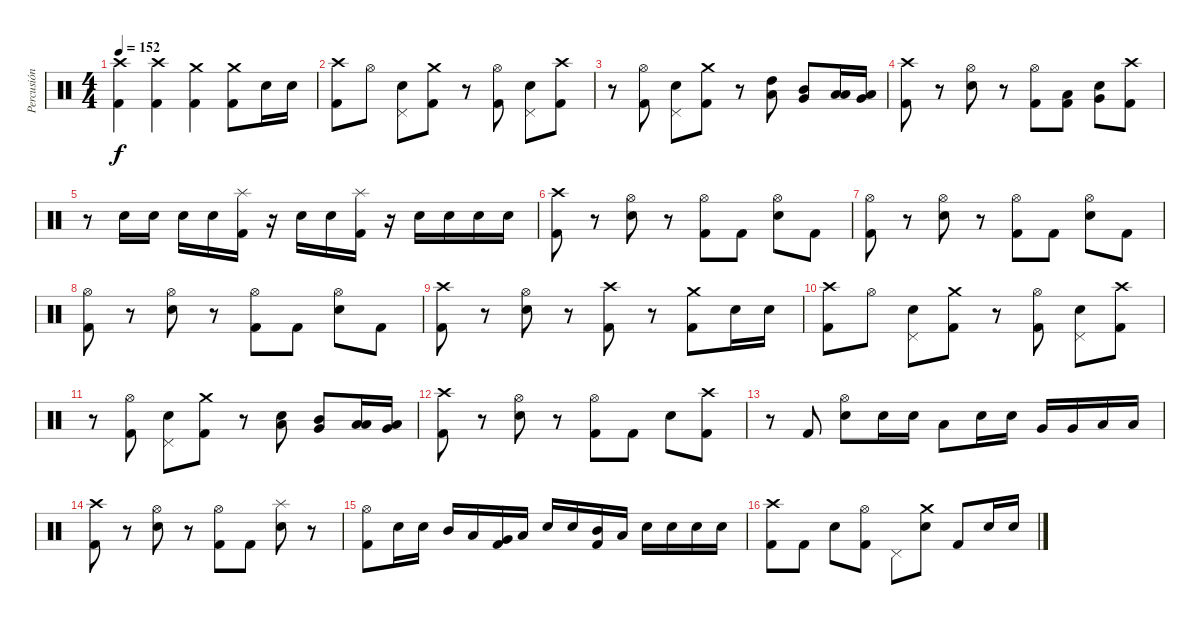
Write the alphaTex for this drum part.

\track ("Percusión" "Percusión") {instrument percussion}
\staff {score}
\articulation defaults
\ts (4 4)
\tempo 152
\clef neutral
\ks c
("Kick (hit) 2" "Crash high (hit)").4{dy f volume 14} ("Kick (hit) 2" "Crash high (hit)").4 ("Kick (hit) 2" "Crash medium (hit)").4 ("Kick (hit) 2" "Crash medium (hit)").8 "Snare (hit) 2".16 "Snare (hit) 2".16 |
("Kick (hit) 2" "Crash high (hit)").8 "Hi-Hat (open)".8 ("Snare (hit) 2" "Pedal Hi-Hat (hit)").8 ("Kick (hit) 2" "Crash medium (hit)").8 r.8 ("Kick (hit) 2" "Hi-Hat (open)").8 ("Snare (hit) 2" "Pedal Hi-Hat (hit)").8 ("Kick (hit) 2" "Crash high (hit)").8 |
r.8 ("Kick (hit) 2" "Hi-Hat (open)").8 ("Snare (hit) 2" "Pedal Hi-Hat (hit)").8 ("Kick (hit) 2" "Crash medium (hit)").8 r.8 ("High Tom (hit)" "Low Tom (hit)").8 ("Mid Tom (hit)" "Very Low Tom (hit)").8 ("Low Tom (hit)" "Low Floor Tom (hit)").16 ("Very Low Tom (hit)" "Low Floor Tom (hit)").16 |
("Kick (hit) 2" "Crash high (hit)").8 r.8 ("Snare (hit) 2" "Hi-Hat (open)").8 r.8 ("Kick (hit) 2" "Hi-Hat (open)").8 ("Kick (hit) 2" "Low Tom (hit)").8 ("Snare (hit) 2" "Very Low Tom (hit)").8 ("Kick (hit) 2" "Crash high (hit)").8 |
r.8 "Snare (hit) 2".16 "Snare (hit) 2".16 "Snare (hit) 2".16 "Snare (hit) 2".16 ("Kick (hit) 2" "Splash (hit)").16 r.16 "Snare (hit) 2".16 "Snare (hit) 2".16 ("Kick (hit) 2" "Splash (hit)").16 r.16 "Snare (hit) 2".16 "Snare (hit) 2".16 "Snare (hit) 2".16 "Snare (hit) 2".16 |
("Kick (hit) 2" "Crash high (hit)").8 r.8 ("Snare (hit) 2" "Hi-Hat (open)").8 r.8 ("Kick (hit) 2" "Hi-Hat (open)").8 "Kick (hit) 2".8 ("Snare (hit) 2" "Hi-Hat (open)").8 "Kick (hit) 2".8 |
("Kick (hit) 2" "Hi-Hat (open)").8 r.8 ("Snare (hit) 2" "Hi-Hat (open)").8 r.8 ("Kick (hit) 2" "Hi-Hat (open)").8 "Kick (hit) 2".8 ("Snare (hit) 2" "Hi-Hat (open)").8 "Kick (hit) 2".8 |
("Kick (hit) 2" "Hi-Hat (open)").8 r.8 ("Snare (hit) 2" "Hi-Hat (open)").8 r.8 ("Kick (hit) 2" "Hi-Hat (open)").8 "Kick (hit) 2".8 ("Snare (hit) 2" "Hi-Hat (open)").8 "Kick (hit) 2".8 |
("Kick (hit) 2" "Crash high (hit)").8 r.8 ("Snare (hit) 2" "Hi-Hat (open)").8 r.8 ("Kick (hit) 2" "Crash high (hit)").8 r.8 ("Kick (hit) 2" "Crash medium (hit)").8 "Snare (hit) 2".16 "Snare (hit) 2".16 |
("Kick (hit) 2" "Crash high (hit)").8 "Hi-Hat (open)".8 ("Snare (hit) 2" "Pedal Hi-Hat (hit)").8 ("Kick (hit) 2" "Crash medium (hit)").8 r.8 ("Kick (hit) 2" "Hi-Hat (open)").8 ("Snare (hit) 2" "Pedal Hi-Hat (hit)").8 ("Kick (hit) 2" "Crash high (hit)").8 |
r.8 ("Kick (hit) 2" "Hi-Hat (open)").8 ("Snare (hit) 2" "Pedal Hi-Hat (hit)").8 ("Kick (hit) 2" "Crash medium (hit)").8 r.8 ("Snare (hit) 2" "Low Tom (hit)").8 ("Mid Tom (hit)" "Very Low Tom (hit)").8 ("Low Tom (hit)" "Low Floor Tom (hit)").16 ("Very Low Tom (hit)" "Low Floor Tom (hit)").16 |
("Kick (hit) 2" "Crash high (hit)").8 r.8 ("Snare (hit) 2" "Hi-Hat (open)").8 r.8 ("Kick (hit) 2" "Hi-Hat (open)").8 "Kick (hit) 2".8 "Snare (hit) 2".8 ("Kick (hit) 2" "Crash high (hit)").8 |
r.8 "Kick (hit) 2".8 ("Snare (hit) 2" "Hi-Hat (open)").8 "Snare (hit) 2".16 "Snare (hit) 2".16 "Low Tom (hit)".8 "Snare (hit) 2".16 "Snare (hit) 2".16 "Very Low Tom (hit)".16 "Very Low Tom (hit)".16 "Low Floor Tom (hit)".16 "Low Floor Tom (hit)".16 |
("Kick (hit) 2" "Crash high (hit)").8 r.8 ("Snare (hit) 2" "Hi-Hat (open)").8 r.8 ("Kick (hit) 2" "Hi-Hat (open)").8 "Kick (hit) 2".8 ("Snare (hit) 2" "Splash (hit)").8 r.8 |
("Kick (hit) 2" "Hi-Hat (open)").8 "Snare (hit) 2".16 "Snare (hit) 2".16 "Mid Tom (hit)".16 "Low Tom (hit)".16 ("Kick (hit) 2" "Very Low Tom (hit)").16 "Low Floor Tom (hit)".16 "Snare (hit) 2".16 "Snare (hit) 2".16 ("Kick (hit) 2" "Mid Tom (hit)").16 "Low Tom (hit)".16 "Snare (hit) 2".16 "Snare (hit) 2".16 "Snare (hit) 2".16 "Snare (hit) 2".16 |
("Kick (hit) 2" "Crash high (hit)").8 "Kick (hit) 2".8 "Snare (hit) 2".8 ("Kick (hit) 2" "Hi-Hat (open)").8 "Pedal Hi-Hat (hit)".8 ("Snare (hit) 2" "Crash medium (hit)").8 "Kick (hit) 2".8 "Snare (hit) 2".16 "Snare (hit) 2".16
